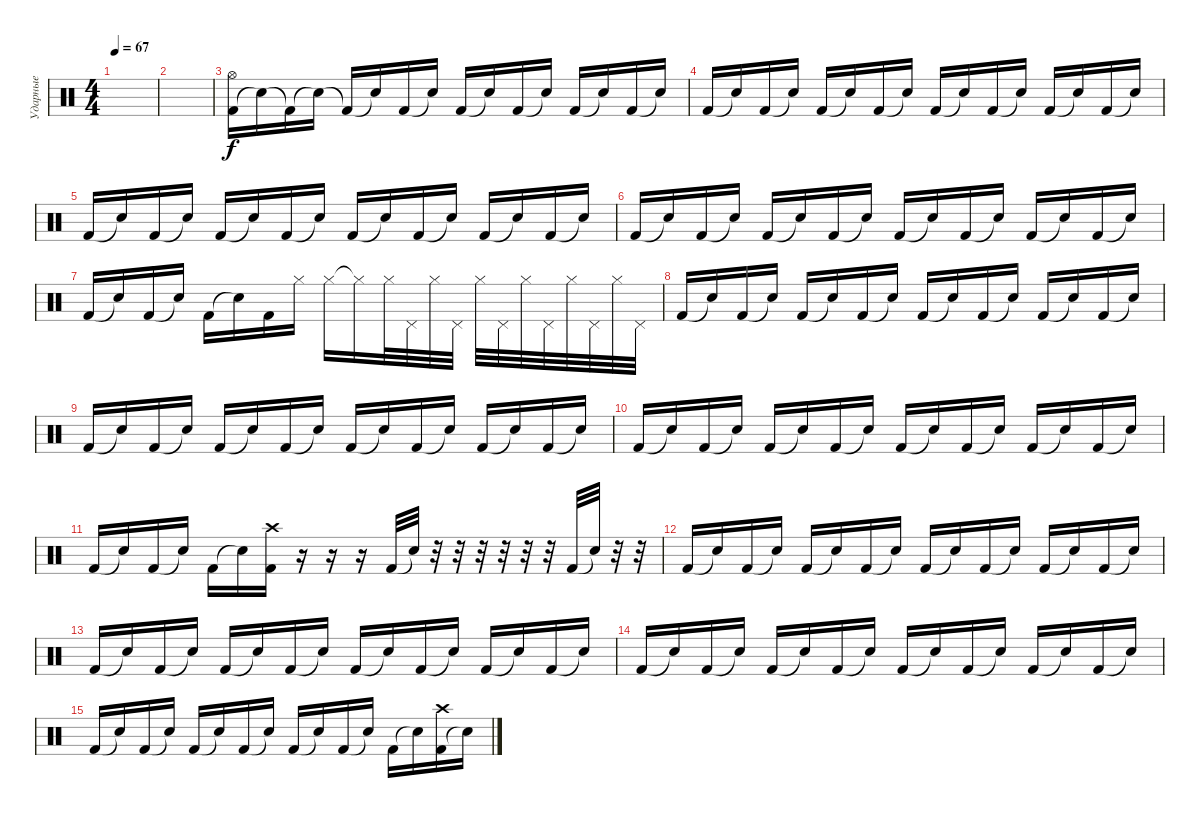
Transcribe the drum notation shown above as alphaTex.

\track ("Ударные" "Ударные") {instrument percussion}
\staff {score}
\articulation defaults
\ts (4 4)
\tempo 67
\clef neutral
\ks c
|
|
("Kick (hit) 2" "Hi-Hat (open)").16 "Snare (hit)"{t}.16 "Kick (hit) 2"{t}.16 "Snare (hit)"{t}.16 "Kick (hit) 2"{t}.16 "Snare (hit)"{t}.16 "Kick (hit) 2".16 "Snare (hit)"{t}.16 "Kick (hit) 2".16 "Snare (hit)"{t}.16 "Kick (hit) 2".16 "Snare (hit)"{t}.16 "Kick (hit) 2".16 "Snare (hit)"{t}.16 "Kick (hit) 2".16 "Snare (hit)"{t}.16 |
"Kick (hit) 2".16 "Snare (hit)"{t}.16 "Kick (hit) 2".16 "Snare (hit)"{t}.16 "Kick (hit) 2".16 "Snare (hit)"{t}.16 "Kick (hit) 2".16 "Snare (hit)"{t}.16 "Kick (hit) 2".16 "Snare (hit)"{t}.16 "Kick (hit) 2".16 "Snare (hit)"{t}.16 "Kick (hit) 2".16 "Snare (hit)"{t}.16 "Kick (hit) 2".16 "Snare (hit)"{t}.16 |
"Kick (hit) 2".16 "Snare (hit)"{t}.16 "Kick (hit) 2".16 "Snare (hit)"{t}.16 "Kick (hit) 2".16 "Snare (hit)"{t}.16 "Kick (hit) 2".16 "Snare (hit)"{t}.16 "Kick (hit) 2".16 "Snare (hit)"{t}.16 "Kick (hit) 2".16 "Snare (hit)"{t}.16 "Kick (hit) 2".16 "Snare (hit)"{t}.16 "Kick (hit) 2".16 "Snare (hit)"{t}.16 |
"Kick (hit) 2".16 "Snare (hit)"{t}.16 "Kick (hit) 2".16 "Snare (hit)"{t}.16 "Kick (hit) 2".16 "Snare (hit)"{t}.16 "Kick (hit) 2".16 "Snare (hit)"{t}.16 "Kick (hit) 2".16 "Snare (hit)"{t}.16 "Kick (hit) 2".16 "Snare (hit)"{t}.16 "Kick (hit) 2".16 "Snare (hit)"{t}.16 "Kick (hit) 2".16 "Snare (hit)"{t}.16 |
"Kick (hit) 2".16 "Snare (hit)"{t}.16 "Kick (hit) 2".16 "Snare (hit)"{t}.16 "Kick (hit) 2".16 "Snare (hit)"{t}.16 "Kick (hit) 2".16 "Hi-Hat (closed)".16 "Hi-Hat (closed)".16 "Hi-Hat (closed)"{t}.16 "Hi-Hat (closed)".32 "Pedal Hi-Hat (hit)".32 "Hi-Hat (closed)".32 "Pedal Hi-Hat (hit)".32 "Hi-Hat (closed)".32 "Pedal Hi-Hat (hit)".32 "Hi-Hat (closed)".32 "Pedal Hi-Hat (hit)".32 "Hi-Hat (closed)".32 "Pedal Hi-Hat (hit)".32 "Hi-Hat (closed)".32 "Pedal Hi-Hat (hit)".32 |
"Kick (hit) 2".16 "Snare (hit)"{t}.16 "Kick (hit) 2".16 "Snare (hit)"{t}.16 "Kick (hit) 2".16 "Snare (hit)"{t}.16 "Kick (hit) 2".16 "Snare (hit)"{t}.16 "Kick (hit) 2".16 "Snare (hit)"{t}.16 "Kick (hit) 2".16 "Snare (hit)"{t}.16 "Kick (hit) 2".16 "Snare (hit)"{t}.16 "Kick (hit) 2".16 "Snare (hit)"{t}.16 |
"Kick (hit) 2".16 "Snare (hit)"{t}.16 "Kick (hit) 2".16 "Snare (hit)"{t}.16 "Kick (hit) 2".16 "Snare (hit)"{t}.16 "Kick (hit) 2".16 "Snare (hit)"{t}.16 "Kick (hit) 2".16 "Snare (hit)"{t}.16 "Kick (hit) 2".16 "Snare (hit)"{t}.16 "Kick (hit) 2".16 "Snare (hit)"{t}.16 "Kick (hit) 2".16 "Snare (hit)"{t}.16 |
"Kick (hit) 2".16 "Snare (hit)"{t}.16 "Kick (hit) 2".16 "Snare (hit)"{t}.16 "Kick (hit) 2".16 "Snare (hit)"{t}.16 "Kick (hit) 2".16 "Snare (hit)"{t}.16 "Kick (hit) 2".16 "Snare (hit)"{t}.16 "Kick (hit) 2".16 "Snare (hit)"{t}.16 "Kick (hit) 2".16 "Snare (hit)"{t}.16 "Kick (hit) 2".16 "Snare (hit)"{t}.16 |
"Kick (hit) 2".16 "Snare (hit)"{t}.16 "Kick (hit) 2".16 "Snare (hit)"{t}.16 "Kick (hit) 2".16 "Snare (hit)"{t}.16 ("Kick (hit) 2" "Crash high (hit)").16 r.16 r.16 r.16 "Kick (hit) 2".32 "Snare (hit)"{t}.32 r.32 r.32 r.32 r.32 r.32 r.32 "Kick (hit) 2".32 "Snare (hit)"{t}.32 r.32 r.32 |
"Kick (hit) 2".16 "Snare (hit)"{t}.16 "Kick (hit) 2".16 "Snare (hit)"{t}.16 "Kick (hit) 2".16 "Snare (hit)"{t}.16 "Kick (hit) 2".16 "Snare (hit)"{t}.16 "Kick (hit) 2".16 "Snare (hit)"{t}.16 "Kick (hit) 2".16 "Snare (hit)"{t}.16 "Kick (hit) 2".16 "Snare (hit)"{t}.16 "Kick (hit) 2".16 "Snare (hit)"{t}.16 |
"Kick (hit) 2".16 "Snare (hit)"{t}.16 "Kick (hit) 2".16 "Snare (hit)"{t}.16 "Kick (hit) 2".16 "Snare (hit)"{t}.16 "Kick (hit) 2".16 "Snare (hit)"{t}.16 "Kick (hit) 2".16 "Snare (hit)"{t}.16 "Kick (hit) 2".16 "Snare (hit)"{t}.16 "Kick (hit) 2".16 "Snare (hit)"{t}.16 "Kick (hit) 2".16 "Snare (hit)"{t}.16 |
"Kick (hit) 2".16 "Snare (hit)"{t}.16 "Kick (hit) 2".16 "Snare (hit)"{t}.16 "Kick (hit) 2".16 "Snare (hit)"{t}.16 "Kick (hit) 2".16 "Snare (hit)"{t}.16 "Kick (hit) 2".16 "Snare (hit)"{t}.16 "Kick (hit) 2".16 "Snare (hit)"{t}.16 "Kick (hit) 2".16 "Snare (hit)"{t}.16 "Kick (hit) 2".16 "Snare (hit)"{t}.16 |
"Kick (hit) 2".16 "Snare (hit)"{t}.16 "Kick (hit) 2".16 "Snare (hit)"{t}.16 "Kick (hit) 2".16 "Snare (hit)"{t}.16 "Kick (hit) 2".16 "Snare (hit)"{t}.16 "Kick (hit) 2".16 "Snare (hit)"{t}.16 "Kick (hit) 2".16 "Snare (hit)"{t}.16 "Kick (hit) 2".16 "Snare (hit)"{t}.16 ("Kick (hit) 2" "Crash high (hit)").16 "Snare (hit)"{t}.16
